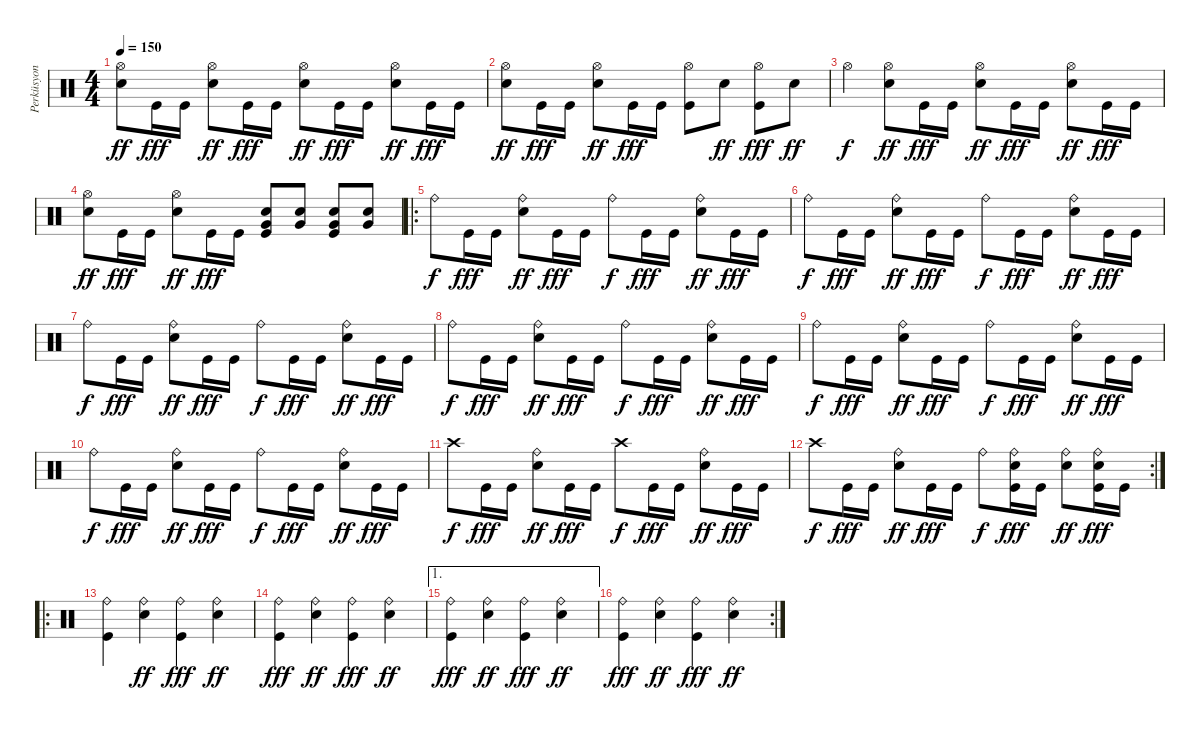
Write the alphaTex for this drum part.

\track ("Perküsyon" "Perküsyon") {instrument percussion}
\staff {score}
\articulation defaults
\ts (4 4)
\tempo 150
\clef neutral
\ks c
("Hi-Hat (open)" "Snare (hit) 2").8{dy ff} "Kick (hit)".16{dy fff} "Kick (hit)".16 ("Hi-Hat (open)" "Snare (hit) 2").8{dy ff} "Kick (hit)".16{dy fff} "Kick (hit)".16 ("Hi-Hat (open)" "Snare (hit) 2").8{dy ff} "Kick (hit)".16{dy fff} "Kick (hit)".16 ("Hi-Hat (open)" "Snare (hit) 2").8{dy ff} "Kick (hit)".16{dy fff} "Kick (hit)".16 |
("Hi-Hat (open)" "Snare (hit) 2").8{dy ff} "Kick (hit)".16{dy fff} "Kick (hit)".16 ("Hi-Hat (open)" "Snare (hit) 2").8{dy ff} "Kick (hit)".16{dy fff} "Kick (hit)".16 ("Hi-Hat (open)" "Kick (hit)").8 "Snare (hit) 2".8{dy ff} ("Hi-Hat (open)" "Kick (hit)").8{dy fff} "Snare (hit) 2".8{dy ff} |
"Hi-Hat (open)".4{dy f} ("Hi-Hat (open)" "Snare (hit) 2").8{dy ff} "Kick (hit)".16{dy fff} "Kick (hit)".16 ("Hi-Hat (open)" "Snare (hit) 2").8{dy ff} "Kick (hit)".16{dy fff} "Kick (hit)".16 ("Hi-Hat (open)" "Snare (hit) 2").8{dy ff} "Kick (hit)".16{dy fff} "Kick (hit)".16 |
("Hi-Hat (open)" "Snare (hit) 2").8{dy ff} "Kick (hit)".16{dy fff} "Kick (hit)".16 ("Hi-Hat (open)" "Snare (hit) 2").8{dy ff} "Kick (hit)".16{dy fff} "Kick (hit)".16 ("Snare (hit) 2" "Very Low Tom (hit)" "Kick (hit)").8 ("Snare (hit) 2" "Very Low Tom (hit)").8 ("Snare (hit) 2" "Very Low Tom (hit)" "Kick (hit)").8 ("Snare (hit) 2" "Very Low Tom (hit)").8 |
\ro "Ride (bell)".8{dy f} "Kick (hit)".16{dy fff} "Kick (hit)".16
("Ride (bell)" "Snare (hit) 2").8{dy ff} "Kick (hit)".16{dy fff} "Kick (hit)".16 "Ride (bell)".8{dy f} "Kick (hit)".16{dy fff} "Kick (hit)".16 ("Ride (bell)" "Snare (hit) 2").8{dy ff} "Kick (hit)".16{dy fff} "Kick (hit)".16 |
"Ride (bell)".8{dy f} "Kick (hit)".16{dy fff} "Kick (hit)".16 ("Ride (bell)" "Snare (hit) 2").8{dy ff} "Kick (hit)".16{dy fff} "Kick (hit)".16 "Ride (bell)".8{dy f} "Kick (hit)".16{dy fff} "Kick (hit)".16 ("Ride (bell)" "Snare (hit) 2").8{dy ff} "Kick (hit)".16{dy fff} "Kick (hit)".16 |
"Ride (bell)".8{dy f} "Kick (hit)".16{dy fff} "Kick (hit)".16 ("Ride (bell)" "Snare (hit) 2").8{dy ff} "Kick (hit)".16{dy fff} "Kick (hit)".16 "Ride (bell)".8{dy f} "Kick (hit)".16{dy fff} "Kick (hit)".16 ("Ride (bell)" "Snare (hit) 2").8{dy ff} "Kick (hit)".16{dy fff} "Kick (hit)".16 |
"Ride (bell)".8{dy f} "Kick (hit)".16{dy fff} "Kick (hit)".16 ("Ride (bell)" "Snare (hit) 2").8{dy ff} "Kick (hit)".16{dy fff} "Kick (hit)".16 "Ride (bell)".8{dy f} "Kick (hit)".16{dy fff} "Kick (hit)".16 ("Ride (bell)" "Snare (hit) 2").8{dy ff} "Kick (hit)".16{dy fff} "Kick (hit)".16 |
"Ride (bell)".8{dy f} "Kick (hit)".16{dy fff} "Kick (hit)".16 ("Ride (bell)" "Snare (hit) 2").8{dy ff} "Kick (hit)".16{dy fff} "Kick (hit)".16 "Ride (bell)".8{dy f} "Kick (hit)".16{dy fff} "Kick (hit)".16 ("Ride (bell)" "Snare (hit) 2").8{dy ff} "Kick (hit)".16{dy fff} "Kick (hit)".16 |
"Ride (bell)".8{dy f} "Kick (hit)".16{dy fff} "Kick (hit)".16 ("Ride (bell)" "Snare (hit) 2").8{dy ff} "Kick (hit)".16{dy fff} "Kick (hit)".16 "Ride (bell)".8{dy f} "Kick (hit)".16{dy fff} "Kick (hit)".16 ("Ride (bell)" "Snare (hit) 2").8{dy ff} "Kick (hit)".16{dy fff} "Kick (hit)".16 |
"Crash high (hit)".8{dy f} "Kick (hit)".16{dy fff} "Kick (hit)".16 ("Ride (bell)" "Snare (hit) 2").8{dy ff} "Kick (hit)".16{dy fff} "Kick (hit)".16 "Crash high (hit)".8{dy f} "Kick (hit)".16{dy fff} "Kick (hit)".16 ("Ride (bell)" "Snare (hit) 2").8{dy ff} "Kick (hit)".16{dy fff} "Kick (hit)".16 |
\rc 2 "Crash high (hit)".8{dy f} "Kick (hit)".16{dy fff} "Kick (hit)".16
("Ride (bell)" "Snare (hit) 2").8{dy ff} "Kick (hit)".16{dy fff} "Kick (hit)".16 "Ride (bell)".8{dy f} ("Ride (bell)" "Snare (hit) 2" "Kick (hit)").16{dy fff} "Kick (hit)".16 ("Ride (bell)" "Snare (hit) 2").8{dy ff} ("Ride (bell)" "Snare (hit) 2" "Kick (hit)").16{dy fff} "Kick (hit)".16 |
\ro
("Ride (bell)" "Kick (hit)").4 ("Ride (bell)" "Snare (hit) 2").4{dy ff} ("Ride (bell)" "Kick (hit)").4{dy fff} ("Ride (bell)" "Snare (hit) 2").4{dy ff} |
("Ride (bell)" "Kick (hit)").4{dy fff} ("Ride (bell)" "Snare (hit) 2").4{dy ff} ("Ride (bell)" "Kick (hit)").4{dy fff} ("Ride (bell)" "Snare (hit) 2").4{dy ff} |
\ae 1
("Ride (bell)" "Kick (hit)").4{dy fff} ("Ride (bell)" "Snare (hit) 2").4{dy ff} ("Ride (bell)" "Kick (hit)").4{dy fff} ("Ride (bell)" "Snare (hit) 2").4{dy ff} |
\rc 2
("Ride (bell)" "Kick (hit)").4{dy fff} ("Ride (bell)" "Snare (hit) 2").4{dy ff} ("Ride (bell)" "Kick (hit)").4{dy fff} ("Ride (bell)" "Snare (hit) 2").4{dy ff}
